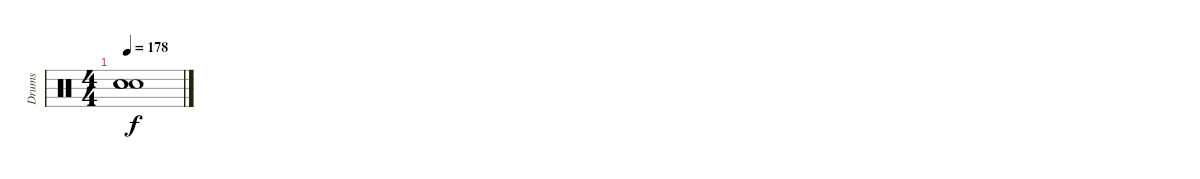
\track ("Drums" "Drums") {instrument percussion}
\staff {score}
\articulation defaults
\ts (4 4)
\tempo 178
\clef neutral
\ks c
("Snare (hit)"{t} "Snare (hit)"{t} "Snare (hit)"{t}).1{dy f}
